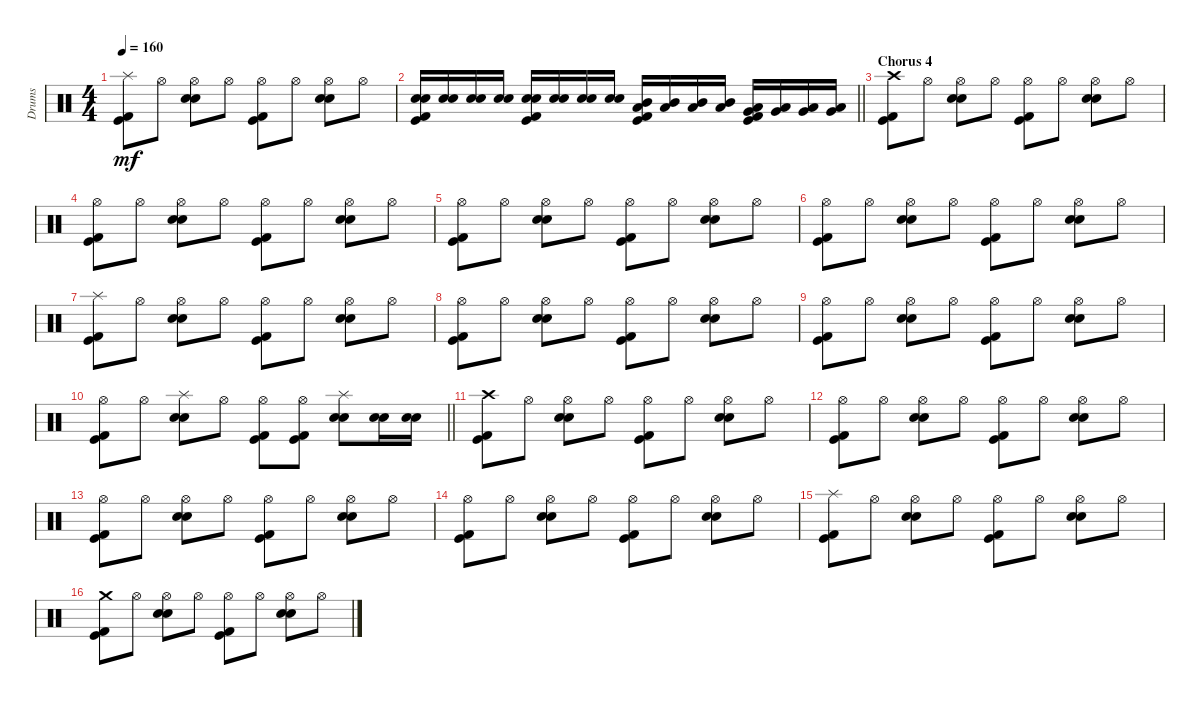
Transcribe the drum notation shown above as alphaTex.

\track ("Drums" "Drums") {instrument percussion}
\staff {score}
\articulation defaults
\ts (4 4)
\tempo 160
\clef neutral
\ks c
("Splash (hit)" "Kick (hit) 2" "Kick (hit)").8{dy mf} "Hi-Hat (open)".8 ("Hi-Hat (open)" "Snare (hit) 2" "Electric Snare (hit)").8 "Hi-Hat (open)".8 ("Hi-Hat (open)" "Kick (hit) 2" "Kick (hit)").8 "Hi-Hat (open)".8 ("Hi-Hat (open)" "Snare (hit) 2" "Electric Snare (hit)").8 "Hi-Hat (open)".8 |
\barLineRight lightlight
("Snare (hit) 2" "Electric Snare (hit)" "Kick (hit) 2" "Kick (hit)").16 ("Snare (hit) 2" "Electric Snare (hit)").16 ("Snare (hit) 2" "Electric Snare (hit)").16 ("Snare (hit) 2" "Electric Snare (hit)").16 ("Snare (hit) 2" "Electric Snare (hit)" "Kick (hit) 2" "Kick (hit)").16 ("Snare (hit) 2" "Electric Snare (hit)").16 ("Snare (hit) 2" "Electric Snare (hit)").16 ("Snare (hit) 2" "Electric Snare (hit)").16 ("Low Tom (hit)" "Mid Tom (hit)" "Kick (hit) 2" "Kick (hit)").16 ("Low Tom (hit)" "Mid Tom (hit)").16 ("Low Tom (hit)" "Mid Tom (hit)").16 ("Low Tom (hit)" "Mid Tom (hit)").16 ("Very Low Tom (hit)" "Low Tom (hit)" "Kick (hit) 2" "Kick (hit)").16 ("Very Low Tom (hit)" "Low Tom (hit)").16 ("Low Floor Tom (hit)" "Very Low Tom (hit)").16 ("Low Floor Tom (hit)" "Very Low Tom (hit)").16 |
\section ("" "Chorus 4")
("Crash high (hit)" "Kick (hit) 2" "Kick (hit)").8 "Hi-Hat (open)".8 ("Hi-Hat (open)" "Snare (hit) 2" "Electric Snare (hit)").8 "Hi-Hat (open)".8 ("Hi-Hat (open)" "Kick (hit) 2" "Kick (hit)").8 "Hi-Hat (open)".8 ("Hi-Hat (open)" "Snare (hit) 2" "Electric Snare (hit)").8 "Hi-Hat (open)".8 |
("Hi-Hat (open)" "Kick (hit) 2" "Kick (hit)").8 "Hi-Hat (open)".8 ("Hi-Hat (open)" "Snare (hit) 2" "Electric Snare (hit)").8 "Hi-Hat (open)".8 ("Hi-Hat (open)" "Kick (hit) 2" "Kick (hit)").8 "Hi-Hat (open)".8 ("Hi-Hat (open)" "Snare (hit) 2" "Electric Snare (hit)").8 "Hi-Hat (open)".8 |
("Hi-Hat (open)" "Kick (hit) 2" "Kick (hit)").8 "Hi-Hat (open)".8 ("Hi-Hat (open)" "Snare (hit) 2" "Electric Snare (hit)").8 "Hi-Hat (open)".8 ("Hi-Hat (open)" "Kick (hit) 2" "Kick (hit)").8 "Hi-Hat (open)".8 ("Hi-Hat (open)" "Snare (hit) 2" "Electric Snare (hit)").8 "Hi-Hat (open)".8 |
("Hi-Hat (open)" "Kick (hit) 2" "Kick (hit)").8 "Hi-Hat (open)".8 ("Hi-Hat (open)" "Snare (hit) 2" "Electric Snare (hit)").8 "Hi-Hat (open)".8 ("Hi-Hat (open)" "Kick (hit) 2" "Kick (hit)").8 "Hi-Hat (open)".8 ("Hi-Hat (open)" "Snare (hit) 2" "Electric Snare (hit)").8 "Hi-Hat (open)".8 |
("Splash (hit)" "Kick (hit) 2" "Kick (hit)").8 "Hi-Hat (open)".8 ("Hi-Hat (open)" "Snare (hit) 2" "Electric Snare (hit)").8 "Hi-Hat (open)".8 ("Hi-Hat (open)" "Kick (hit) 2" "Kick (hit)").8 "Hi-Hat (open)".8 ("Hi-Hat (open)" "Snare (hit) 2" "Electric Snare (hit)").8 "Hi-Hat (open)".8 |
("Hi-Hat (open)" "Kick (hit) 2" "Kick (hit)").8 "Hi-Hat (open)".8 ("Hi-Hat (open)" "Snare (hit) 2" "Electric Snare (hit)").8 "Hi-Hat (open)".8 ("Hi-Hat (open)" "Kick (hit) 2" "Kick (hit)").8 "Hi-Hat (open)".8 ("Hi-Hat (open)" "Snare (hit) 2" "Electric Snare (hit)").8 "Hi-Hat (open)".8 |
("Hi-Hat (open)" "Kick (hit) 2" "Kick (hit)").8 "Hi-Hat (open)".8 ("Hi-Hat (open)" "Snare (hit) 2" "Electric Snare (hit)").8 "Hi-Hat (open)".8 ("Hi-Hat (open)" "Kick (hit) 2" "Kick (hit)").8 "Hi-Hat (open)".8 ("Hi-Hat (open)" "Snare (hit) 2" "Electric Snare (hit)").8 "Hi-Hat (open)".8 |
\barLineRight lightlight
("Hi-Hat (open)" "Kick (hit) 2" "Kick (hit)").8 "Hi-Hat (open)".8 ("Splash (hit)" "Snare (hit) 2" "Electric Snare (hit)").8 "Hi-Hat (open)".8 ("Hi-Hat (open)" "Kick (hit) 2" "Kick (hit)").8 ("Hi-Hat (open)" "Kick (hit) 2" "Kick (hit)").8 ("Splash (hit)" "Snare (hit) 2" "Electric Snare (hit)").8 ("Snare (hit) 2" "Electric Snare (hit)").16 ("Snare (hit) 2" "Electric Snare (hit)").16 |
("Crash high (hit)" "Kick (hit) 2" "Kick (hit)").8 "Hi-Hat (open)".8 ("Hi-Hat (open)" "Snare (hit) 2" "Electric Snare (hit)").8 "Hi-Hat (open)".8 ("Hi-Hat (open)" "Kick (hit) 2" "Kick (hit)").8 "Hi-Hat (open)".8 ("Hi-Hat (open)" "Snare (hit) 2" "Electric Snare (hit)").8 "Hi-Hat (open)".8 |
("Hi-Hat (open)" "Kick (hit) 2" "Kick (hit)").8 "Hi-Hat (open)".8 ("Hi-Hat (open)" "Snare (hit) 2" "Electric Snare (hit)").8 "Hi-Hat (open)".8 ("Hi-Hat (open)" "Kick (hit) 2" "Kick (hit)").8 "Hi-Hat (open)".8 ("Hi-Hat (open)" "Snare (hit) 2" "Electric Snare (hit)").8 "Hi-Hat (open)".8 |
("Hi-Hat (open)" "Kick (hit) 2" "Kick (hit)").8 "Hi-Hat (open)".8 ("Hi-Hat (open)" "Snare (hit) 2" "Electric Snare (hit)").8 "Hi-Hat (open)".8 ("Hi-Hat (open)" "Kick (hit) 2" "Kick (hit)").8 "Hi-Hat (open)".8 ("Hi-Hat (open)" "Snare (hit) 2" "Electric Snare (hit)").8 "Hi-Hat (open)".8 |
("Hi-Hat (open)" "Kick (hit) 2" "Kick (hit)").8 "Hi-Hat (open)".8 ("Hi-Hat (open)" "Snare (hit) 2" "Electric Snare (hit)").8 "Hi-Hat (open)".8 ("Hi-Hat (open)" "Kick (hit) 2" "Kick (hit)").8 "Hi-Hat (open)".8 ("Hi-Hat (open)" "Snare (hit) 2" "Electric Snare (hit)").8 "Hi-Hat (open)".8 |
("Splash (hit)" "Kick (hit) 2" "Kick (hit)").8 "Hi-Hat (open)".8 ("Hi-Hat (open)" "Snare (hit) 2" "Electric Snare (hit)").8 "Hi-Hat (open)".8 ("Hi-Hat (open)" "Kick (hit) 2" "Kick (hit)").8 "Hi-Hat (open)".8 ("Hi-Hat (open)" "Snare (hit) 2" "Electric Snare (hit)").8 "Hi-Hat (open)".8 |
("Crash medium (hit)" "Kick (hit) 2" "Kick (hit)").8 "Hi-Hat (open)".8 ("Hi-Hat (open)" "Snare (hit) 2" "Electric Snare (hit)").8 "Hi-Hat (open)".8 ("Hi-Hat (open)" "Kick (hit) 2" "Kick (hit)").8 "Hi-Hat (open)".8 ("Hi-Hat (open)" "Snare (hit) 2" "Electric Snare (hit)").8 "Hi-Hat (open)".8
